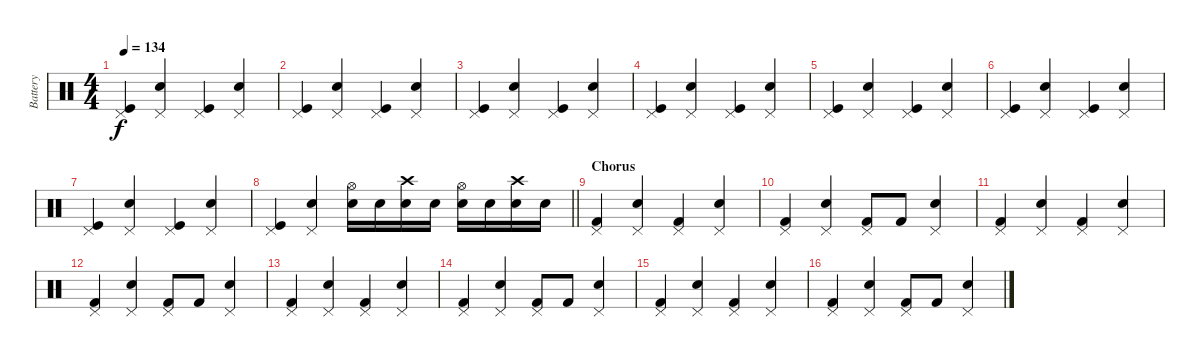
\track ("Battery" "Battery") {instrument percussion}
\staff {score}
\articulation defaults
\ts (4 4)
\tempo 134
\clef neutral
\ks c
("Pedal Hi-Hat (hit)" "Kick (hit)").4{dy f} ("Pedal Hi-Hat (hit)" "Snare (hit) 2").4 ("Pedal Hi-Hat (hit)" "Kick (hit)").4 ("Pedal Hi-Hat (hit)" "Snare (hit) 2").4 |
("Pedal Hi-Hat (hit)" "Kick (hit)").4 ("Pedal Hi-Hat (hit)" "Snare (hit) 2").4 ("Pedal Hi-Hat (hit)" "Kick (hit)").4 ("Pedal Hi-Hat (hit)" "Snare (hit) 2").4 |
("Pedal Hi-Hat (hit)" "Kick (hit)").4 ("Pedal Hi-Hat (hit)" "Snare (hit) 2").4 ("Pedal Hi-Hat (hit)" "Kick (hit)").4 ("Pedal Hi-Hat (hit)" "Snare (hit) 2").4 |
("Pedal Hi-Hat (hit)" "Kick (hit)").4 ("Pedal Hi-Hat (hit)" "Snare (hit) 2").4 ("Pedal Hi-Hat (hit)" "Kick (hit)").4 ("Pedal Hi-Hat (hit)" "Snare (hit) 2").4 |
("Pedal Hi-Hat (hit)" "Kick (hit)").4 ("Pedal Hi-Hat (hit)" "Snare (hit) 2").4 ("Pedal Hi-Hat (hit)" "Kick (hit)").4 ("Pedal Hi-Hat (hit)" "Snare (hit) 2").4 |
("Pedal Hi-Hat (hit)" "Kick (hit)").4 ("Pedal Hi-Hat (hit)" "Snare (hit) 2").4 ("Pedal Hi-Hat (hit)" "Kick (hit)").4 ("Pedal Hi-Hat (hit)" "Snare (hit) 2").4 |
("Pedal Hi-Hat (hit)" "Kick (hit)").4 ("Pedal Hi-Hat (hit)" "Snare (hit) 2").4 ("Pedal Hi-Hat (hit)" "Kick (hit)").4 ("Pedal Hi-Hat (hit)" "Snare (hit) 2").4 |
\barLineRight lightlight
("Pedal Hi-Hat (hit)" "Kick (hit)").4 ("Pedal Hi-Hat (hit)" "Snare (hit) 2").4 ("Hi-Hat (open)" "Snare (hit) 2").16 "Snare (hit) 2".16 ("Crash high (hit)" "Snare (hit) 2").16 "Snare (hit) 2".16 ("Hi-Hat (open)" "Snare (hit) 2").16 "Snare (hit) 2".16 ("Crash high (hit)" "Snare (hit) 2").16 "Snare (hit) 2".16 |
\section ("" "Chorus")
("Pedal Hi-Hat (hit)" "Kick (hit) 2").4 ("Pedal Hi-Hat (hit)" "Snare (hit) 2").4 ("Pedal Hi-Hat (hit)" "Kick (hit) 2").4 ("Pedal Hi-Hat (hit)" "Snare (hit) 2").4 |
("Pedal Hi-Hat (hit)" "Kick (hit) 2").4 ("Pedal Hi-Hat (hit)" "Snare (hit) 2").4 ("Pedal Hi-Hat (hit)" "Kick (hit) 2").8 "Kick (hit) 2".8 ("Pedal Hi-Hat (hit)" "Snare (hit) 2").4 |
("Pedal Hi-Hat (hit)" "Kick (hit) 2").4 ("Pedal Hi-Hat (hit)" "Snare (hit) 2").4 ("Pedal Hi-Hat (hit)" "Kick (hit) 2").4 ("Pedal Hi-Hat (hit)" "Snare (hit) 2").4 |
("Pedal Hi-Hat (hit)" "Kick (hit) 2").4 ("Pedal Hi-Hat (hit)" "Snare (hit) 2").4 ("Pedal Hi-Hat (hit)" "Kick (hit) 2").8 "Kick (hit) 2".8 ("Pedal Hi-Hat (hit)" "Snare (hit) 2").4 |
("Pedal Hi-Hat (hit)" "Kick (hit) 2").4 ("Pedal Hi-Hat (hit)" "Snare (hit) 2").4 ("Pedal Hi-Hat (hit)" "Kick (hit) 2").4 ("Pedal Hi-Hat (hit)" "Snare (hit) 2").4 |
("Pedal Hi-Hat (hit)" "Kick (hit) 2").4 ("Pedal Hi-Hat (hit)" "Snare (hit) 2").4 ("Pedal Hi-Hat (hit)" "Kick (hit) 2").8 "Kick (hit) 2".8 ("Pedal Hi-Hat (hit)" "Snare (hit) 2").4 |
("Pedal Hi-Hat (hit)" "Kick (hit) 2").4 ("Pedal Hi-Hat (hit)" "Snare (hit) 2").4 ("Pedal Hi-Hat (hit)" "Kick (hit) 2").4 ("Pedal Hi-Hat (hit)" "Snare (hit) 2").4 |
("Pedal Hi-Hat (hit)" "Kick (hit) 2").4 ("Pedal Hi-Hat (hit)" "Snare (hit) 2").4 ("Pedal Hi-Hat (hit)" "Kick (hit) 2").8 "Kick (hit) 2".8 ("Pedal Hi-Hat (hit)" "Snare (hit) 2").4
